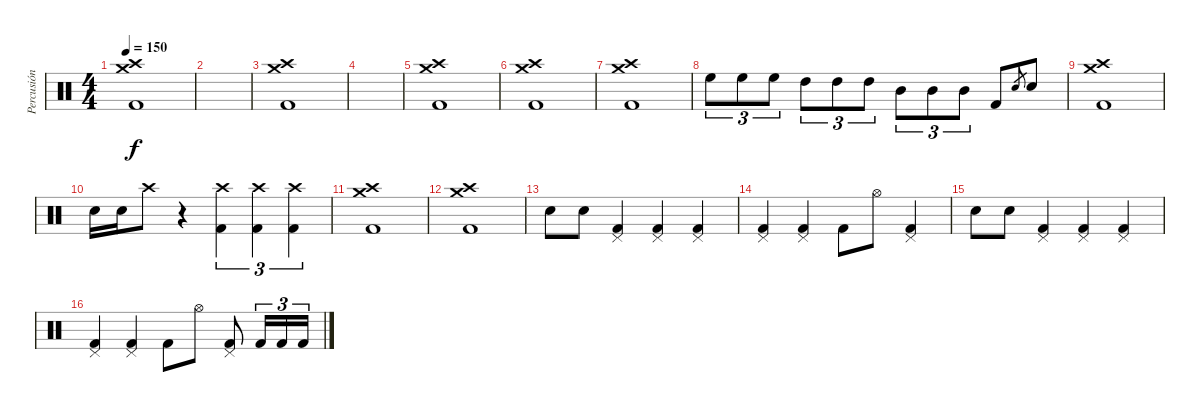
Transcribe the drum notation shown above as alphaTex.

\track ("Percusión" "Percusión") {instrument percussion}
\staff {score}
\articulation defaults
\ts (4 4)
\tempo 150
\clef neutral
\ks c
("Crash high (hit)" "Crash medium (hit)" "Kick (hit) 2").1{dy f} |
|
("Crash high (hit)" "Crash medium (hit)" "Kick (hit) 2").1 |
|
("Crash high (hit)" "Crash medium (hit)" "Kick (hit) 2").1 |
("Crash high (hit)" "Crash medium (hit)" "Kick (hit) 2").1 |
("Crash high (hit)" "Crash medium (hit)" "Kick (hit) 2").1 |
"High Floor Tom (hit)".8{tu (3 2)} "High Floor Tom (hit)".8{tu (3 2)} "High Floor Tom (hit)".8{tu (3 2)} "High Tom (hit)".8{tu (3 2)} "High Tom (hit)".8{tu (3 2)} "High Tom (hit)".8{tu (3 2)} "Mid Tom (hit)".8{tu (3 2)} "Mid Tom (hit)".8{tu (3 2)} "Mid Tom (hit)".8{tu (3 2)} "Kick (hit) 2".8 "Snare (hit) 2".8{gr} "Snare (hit) 2".8 |
("Crash high (hit)" "Crash medium (hit)" "Kick (hit) 2").1 |
"Snare (hit) 2".16 "Snare (hit) 2".16 "Crash high (hit)".8 r.4 ("Crash high (hit)" "Kick (hit) 2").4{tu (3 2)} ("Crash high (hit)" "Kick (hit) 2").4{tu (3 2)} ("Crash high (hit)" "Kick (hit) 2").4{tu (3 2)} |
("Crash high (hit)" "Crash medium (hit)" "Kick (hit) 2").1 |
("Crash high (hit)" "Crash medium (hit)" "Kick (hit) 2").1 |
"Snare (hit) 2".8 "Snare (hit) 2".8 ("Pedal Hi-Hat (hit)" "Kick (hit) 2").4 ("Pedal Hi-Hat (hit)" "Kick (hit) 2").4 ("Pedal Hi-Hat (hit)" "Kick (hit) 2").4 |
("Pedal Hi-Hat (hit)" "Kick (hit) 2").4 ("Pedal Hi-Hat (hit)" "Kick (hit) 2").4 "Kick (hit) 2".8 "Hi-Hat (open)".8 ("Pedal Hi-Hat (hit)" "Kick (hit) 2").4 |
"Snare (hit) 2".8 "Snare (hit) 2".8 ("Pedal Hi-Hat (hit)" "Kick (hit) 2").4 ("Pedal Hi-Hat (hit)" "Kick (hit) 2").4 ("Pedal Hi-Hat (hit)" "Kick (hit) 2").4 |
("Pedal Hi-Hat (hit)" "Kick (hit) 2").4 ("Pedal Hi-Hat (hit)" "Kick (hit) 2").4 "Kick (hit) 2".8 "Hi-Hat (open)".8 ("Pedal Hi-Hat (hit)" "Kick (hit) 2").8 "Kick (hit) 2".16{tu (3 2)} "Kick (hit) 2".16{tu (3 2)} "Kick (hit) 2".16{tu (3 2)}
